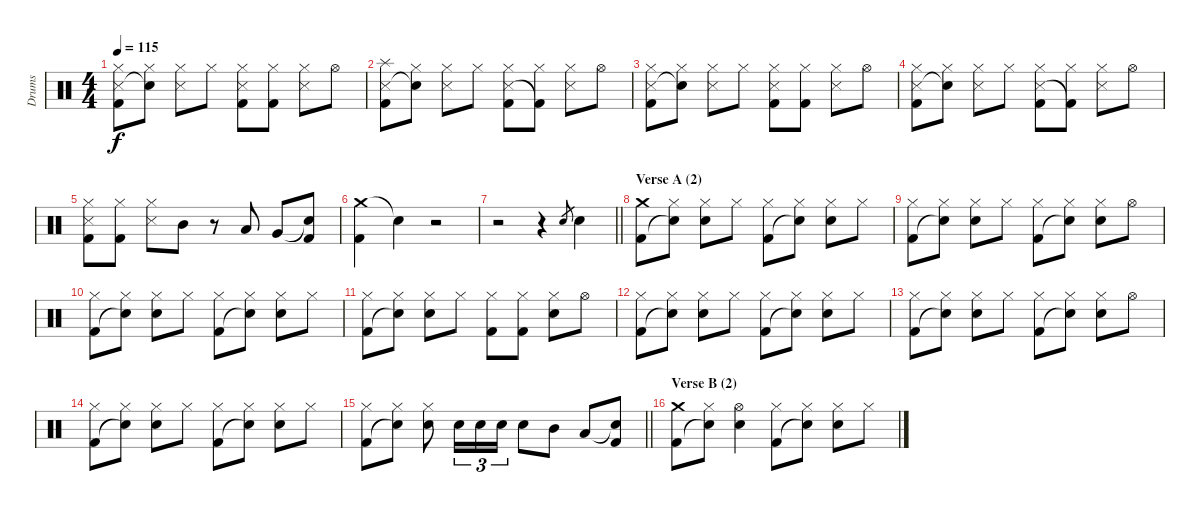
\track ("Drums" "Drums") {instrument percussion}
\staff {score}
\articulation defaults
\ts (4 4)
\tempo 115
\clef neutral
\ks c
("Hi-Hat (closed)" "Snare (side stick) 3" "Kick (hit) 2").8{dy f} ("Hi-Hat (closed)" "Snare (hit)"{t}).8 ("Hi-Hat (closed)" "Snare (side stick) 3").8 "Hi-Hat (closed)".8 ("Hi-Hat (closed)" "Snare (side stick) 3" "Kick (hit) 2").8 ("Hi-Hat (closed)" "Kick (hit) 2").8 ("Hi-Hat (closed)" "Snare (side stick) 3").8 "Hi-Hat (open)".8 |
("Splash (hit)" "Snare (side stick) 3" "Kick (hit) 2").8 ("Hi-Hat (closed)" "Snare (hit)"{t}).8 ("Hi-Hat (closed)" "Snare (side stick) 3").8 "Hi-Hat (closed)".8 ("Hi-Hat (closed)" "Snare (side stick) 3" "Kick (hit) 2").8 ("Hi-Hat (closed)" "Kick (hit) 2"{t}).8 ("Hi-Hat (closed)" "Snare (side stick) 3").8 "Hi-Hat (open)".8 |
("Hi-Hat (closed)" "Snare (side stick) 3" "Kick (hit) 2").8 ("Hi-Hat (closed)" "Snare (hit)"{t}).8 ("Hi-Hat (closed)" "Snare (side stick) 3").8 "Hi-Hat (closed)".8 ("Hi-Hat (closed)" "Snare (side stick) 3" "Kick (hit) 2").8 ("Hi-Hat (closed)" "Kick (hit) 2").8 ("Hi-Hat (closed)" "Snare (side stick) 3").8 "Hi-Hat (open)".8 |
("Hi-Hat (closed)" "Snare (side stick) 3" "Kick (hit) 2").8 ("Hi-Hat (closed)" "Snare (hit)"{t}).8 ("Hi-Hat (closed)" "Snare (side stick) 3").8 "Hi-Hat (closed)".8 ("Hi-Hat (closed)" "Snare (side stick) 3" "Kick (hit) 2").8 ("Hi-Hat (closed)" "Kick (hit) 2"{t}).8 ("Hi-Hat (closed)" "Snare (side stick) 3").8 "Hi-Hat (open)".8 |
("Hi-Hat (closed)" "Snare (side stick) 3" "Kick (hit) 2").8 ("Hi-Hat (closed)" "Kick (hit) 2").8 ("Hi-Hat (closed)" "Snare (side stick) 3").8 "Mid Tom (hit)".8 r.8 "Low Tom (hit)".8 "Very Low Tom (hit)".8 ("Snare (hit)"{t} "Kick (hit) 2").8 |
("Crash medium (hit)" "Kick (hit) 2").4 "Snare (hit)"{t}.4 r.2 |
\barLineRight lightlight
r.2 r.4 "Electric Snare (hit)".8{gr} "Electric Snare (hit)".4 |
\section ("" "Verse A (2)")
("Crash medium (hit)" "Kick (hit) 2").8 ("Hi-Hat (closed)" "Snare (hit)"{t}).8 ("Hi-Hat (closed)" "Electric Snare (hit)").8 "Hi-Hat (closed)".8 ("Hi-Hat (closed)" "Kick (hit) 2").8 ("Hi-Hat (closed)" "Snare (hit)"{t}).8 ("Hi-Hat (closed)" "Electric Snare (hit)").8 "Hi-Hat (closed)".8 |
("Hi-Hat (closed)" "Kick (hit) 2").8 ("Hi-Hat (closed)" "Snare (hit)"{t}).8 ("Hi-Hat (closed)" "Electric Snare (hit)").8 "Hi-Hat (closed)".8 ("Hi-Hat (closed)" "Kick (hit) 2").8 ("Hi-Hat (closed)" "Snare (hit)"{t}).8 ("Hi-Hat (closed)" "Electric Snare (hit)").8 "Hi-Hat (open)".8 |
("Hi-Hat (closed)" "Kick (hit) 2").8 ("Hi-Hat (closed)" "Snare (hit)"{t}).8 ("Hi-Hat (closed)" "Electric Snare (hit)").8 "Hi-Hat (closed)".8 ("Hi-Hat (closed)" "Kick (hit) 2").8 ("Hi-Hat (closed)" "Snare (hit)"{t}).8 ("Hi-Hat (closed)" "Electric Snare (hit)").8 "Hi-Hat (closed)".8 |
("Hi-Hat (closed)" "Kick (hit) 2").8 ("Hi-Hat (closed)" "Snare (hit)"{t}).8 ("Hi-Hat (closed)" "Electric Snare (hit)").8 "Hi-Hat (closed)".8 ("Hi-Hat (closed)" "Kick (hit) 2").8 ("Hi-Hat (closed)" "Kick (hit) 2").8 ("Hi-Hat (closed)" "Electric Snare (hit)").8 "Hi-Hat (open)".8 |
("Hi-Hat (closed)" "Kick (hit) 2").8 ("Hi-Hat (closed)" "Snare (hit)"{t}).8 ("Hi-Hat (closed)" "Electric Snare (hit)").8 "Hi-Hat (closed)".8 ("Hi-Hat (closed)" "Kick (hit) 2").8 ("Hi-Hat (closed)" "Snare (hit)"{t}).8 ("Hi-Hat (closed)" "Electric Snare (hit)").8 "Hi-Hat (closed)".8 |
("Hi-Hat (closed)" "Kick (hit) 2").8 ("Hi-Hat (closed)" "Snare (hit)"{t}).8 ("Hi-Hat (closed)" "Electric Snare (hit)").8 "Hi-Hat (closed)".8 ("Hi-Hat (closed)" "Kick (hit) 2").8 ("Hi-Hat (closed)" "Snare (hit)"{t}).8 ("Hi-Hat (closed)" "Electric Snare (hit)").8 "Hi-Hat (open)".8 |
("Hi-Hat (closed)" "Kick (hit) 2").8 ("Hi-Hat (closed)" "Snare (hit)"{t}).8 ("Hi-Hat (closed)" "Electric Snare (hit)").8 "Hi-Hat (closed)".8 ("Hi-Hat (closed)" "Kick (hit) 2").8 ("Hi-Hat (closed)" "Snare (hit)"{t}).8 ("Hi-Hat (closed)" "Electric Snare (hit)").8 "Hi-Hat (closed)".8 |
\barLineRight lightlight
("Hi-Hat (closed)" "Kick (hit) 2").8 ("Hi-Hat (closed)" "Snare (hit)"{t}).8 ("Hi-Hat (closed)" "Electric Snare (hit)").8 "Electric Snare (hit)".16{tu (3 2)} "Electric Snare (hit)".16{tu (3 2)} "Electric Snare (hit)".16{tu (3 2)} "Electric Snare (hit)".8 "Mid Tom (hit)".8 "Low Tom (hit)".8 ("Snare (hit)"{t} "Kick (hit) 2").8 |
\section ("" "Verse B (2)")
("Crash medium (hit)" "Kick (hit) 2").8 ("Hi-Hat (closed)" "Snare (hit)"{t}).8 ("Hi-Hat (open)" "Electric Snare (hit)").4 ("Hi-Hat (closed)" "Kick (hit) 2").8 ("Hi-Hat (closed)" "Snare (hit)"{t}).8 ("Hi-Hat (closed)" "Electric Snare (hit)").8 "Hi-Hat (closed)".8
